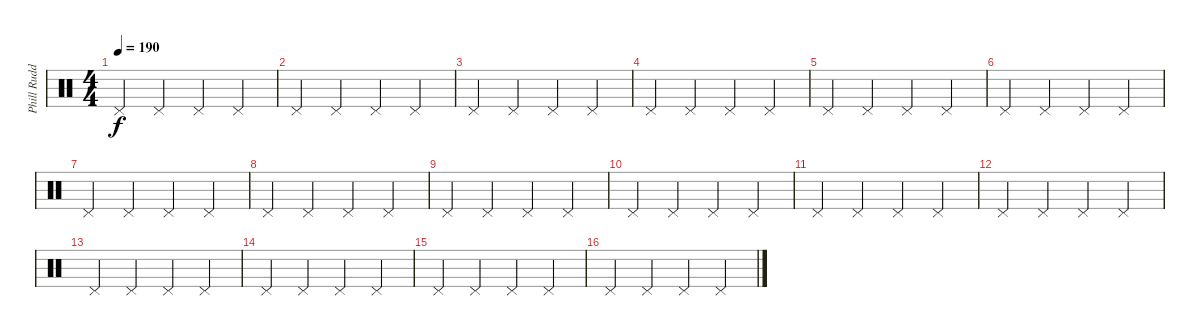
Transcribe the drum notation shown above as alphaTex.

\track ("Phill Rudd (Drums)" "Phill Rudd") {instrument percussion}
\staff {score}
\articulation defaults
\ts (4 4)
\tempo 190
\clef neutral
\ks c "Pedal Hi-Hat (hit)".4{dy f} "Pedal Hi-Hat (hit)".4 "Pedal Hi-Hat (hit)".4 "Pedal Hi-Hat (hit)".4
|
"Pedal Hi-Hat (hit)".4 "Pedal Hi-Hat (hit)".4 "Pedal Hi-Hat (hit)".4 "Pedal Hi-Hat (hit)".4 |
"Pedal Hi-Hat (hit)".4 "Pedal Hi-Hat (hit)".4 "Pedal Hi-Hat (hit)".4 "Pedal Hi-Hat (hit)".4 |
"Pedal Hi-Hat (hit)".4 "Pedal Hi-Hat (hit)".4 "Pedal Hi-Hat (hit)".4 "Pedal Hi-Hat (hit)".4 |
"Pedal Hi-Hat (hit)".4 "Pedal Hi-Hat (hit)".4 "Pedal Hi-Hat (hit)".4 "Pedal Hi-Hat (hit)".4 |
"Pedal Hi-Hat (hit)".4 "Pedal Hi-Hat (hit)".4 "Pedal Hi-Hat (hit)".4 "Pedal Hi-Hat (hit)".4 |
"Pedal Hi-Hat (hit)".4 "Pedal Hi-Hat (hit)".4 "Pedal Hi-Hat (hit)".4 "Pedal Hi-Hat (hit)".4 |
"Pedal Hi-Hat (hit)".4 "Pedal Hi-Hat (hit)".4 "Pedal Hi-Hat (hit)".4 "Pedal Hi-Hat (hit)".4 |
"Pedal Hi-Hat (hit)".4 "Pedal Hi-Hat (hit)".4 "Pedal Hi-Hat (hit)".4 "Pedal Hi-Hat (hit)".4 |
"Pedal Hi-Hat (hit)".4 "Pedal Hi-Hat (hit)".4 "Pedal Hi-Hat (hit)".4 "Pedal Hi-Hat (hit)".4 |
"Pedal Hi-Hat (hit)".4 "Pedal Hi-Hat (hit)".4 "Pedal Hi-Hat (hit)".4 "Pedal Hi-Hat (hit)".4 |
"Pedal Hi-Hat (hit)".4 "Pedal Hi-Hat (hit)".4 "Pedal Hi-Hat (hit)".4 "Pedal Hi-Hat (hit)".4 |
"Pedal Hi-Hat (hit)".4 "Pedal Hi-Hat (hit)".4 "Pedal Hi-Hat (hit)".4 "Pedal Hi-Hat (hit)".4 |
"Pedal Hi-Hat (hit)".4 "Pedal Hi-Hat (hit)".4 "Pedal Hi-Hat (hit)".4 "Pedal Hi-Hat (hit)".4 |
"Pedal Hi-Hat (hit)".4 "Pedal Hi-Hat (hit)".4 "Pedal Hi-Hat (hit)".4 "Pedal Hi-Hat (hit)".4 |
"Pedal Hi-Hat (hit)".4 "Pedal Hi-Hat (hit)".4 "Pedal Hi-Hat (hit)".4 "Pedal Hi-Hat (hit)".4
